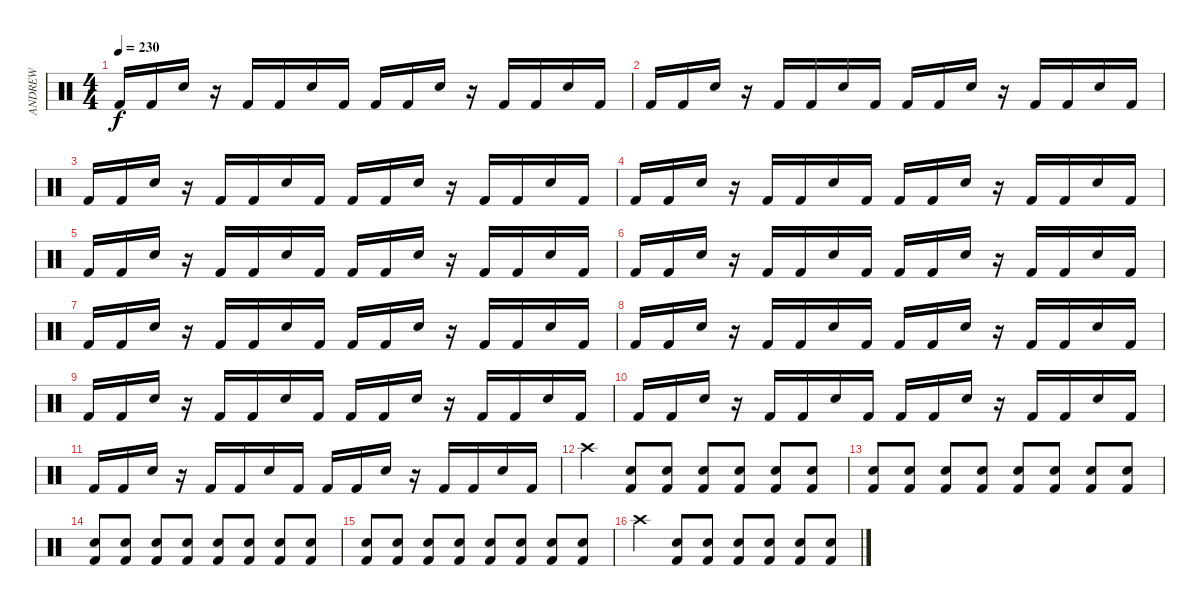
\track ("ANDREW" "ANDREW") {instrument percussion}
\staff {score}
\articulation defaults
\ts (4 4)
\tempo 230
\clef neutral
\ks c "Kick (hit) 2".16{dy f} "Kick (hit) 2".16 "Electric Snare (hit)".16
r.16 "Kick (hit) 2".16 "Kick (hit) 2".16 "Electric Snare (hit)".16 "Kick (hit) 2".16 "Kick (hit) 2".16 "Kick (hit) 2".16 "Electric Snare (hit)".16 r.16 "Kick (hit) 2".16 "Kick (hit) 2".16 "Electric Snare (hit)".16 "Kick (hit) 2".16 |
"Kick (hit) 2".16 "Kick (hit) 2".16 "Electric Snare (hit)".16 r.16 "Kick (hit) 2".16 "Kick (hit) 2".16 "Electric Snare (hit)".16 "Kick (hit) 2".16 "Kick (hit) 2".16 "Kick (hit) 2".16 "Electric Snare (hit)".16 r.16 "Kick (hit) 2".16 "Kick (hit) 2".16 "Electric Snare (hit)".16 "Kick (hit) 2".16 |
"Kick (hit) 2".16 "Kick (hit) 2".16 "Electric Snare (hit)".16 r.16 "Kick (hit) 2".16 "Kick (hit) 2".16 "Electric Snare (hit)".16 "Kick (hit) 2".16 "Kick (hit) 2".16 "Kick (hit) 2".16 "Electric Snare (hit)".16 r.16 "Kick (hit) 2".16 "Kick (hit) 2".16 "Electric Snare (hit)".16 "Kick (hit) 2".16 |
"Kick (hit) 2".16 "Kick (hit) 2".16 "Electric Snare (hit)".16 r.16 "Kick (hit) 2".16 "Kick (hit) 2".16 "Electric Snare (hit)".16 "Kick (hit) 2".16 "Kick (hit) 2".16 "Kick (hit) 2".16 "Electric Snare (hit)".16 r.16 "Kick (hit) 2".16 "Kick (hit) 2".16 "Electric Snare (hit)".16 "Kick (hit) 2".16 |
"Kick (hit) 2".16 "Kick (hit) 2".16 "Electric Snare (hit)".16 r.16 "Kick (hit) 2".16 "Kick (hit) 2".16 "Electric Snare (hit)".16 "Kick (hit) 2".16 "Kick (hit) 2".16 "Kick (hit) 2".16 "Electric Snare (hit)".16 r.16 "Kick (hit) 2".16 "Kick (hit) 2".16 "Electric Snare (hit)".16 "Kick (hit) 2".16 |
"Kick (hit) 2".16 "Kick (hit) 2".16 "Electric Snare (hit)".16 r.16 "Kick (hit) 2".16 "Kick (hit) 2".16 "Electric Snare (hit)".16 "Kick (hit) 2".16 "Kick (hit) 2".16 "Kick (hit) 2".16 "Electric Snare (hit)".16 r.16 "Kick (hit) 2".16 "Kick (hit) 2".16 "Electric Snare (hit)".16 "Kick (hit) 2".16 |
"Kick (hit) 2".16 "Kick (hit) 2".16 "Electric Snare (hit)".16 r.16 "Kick (hit) 2".16 "Kick (hit) 2".16 "Electric Snare (hit)".16 "Kick (hit) 2".16 "Kick (hit) 2".16 "Kick (hit) 2".16 "Electric Snare (hit)".16 r.16 "Kick (hit) 2".16 "Kick (hit) 2".16 "Electric Snare (hit)".16 "Kick (hit) 2".16 |
"Kick (hit) 2".16 "Kick (hit) 2".16 "Electric Snare (hit)".16 r.16 "Kick (hit) 2".16 "Kick (hit) 2".16 "Electric Snare (hit)".16 "Kick (hit) 2".16 "Kick (hit) 2".16 "Kick (hit) 2".16 "Electric Snare (hit)".16 r.16 "Kick (hit) 2".16 "Kick (hit) 2".16 "Electric Snare (hit)".16 "Kick (hit) 2".16 |
"Kick (hit) 2".16 "Kick (hit) 2".16 "Electric Snare (hit)".16 r.16 "Kick (hit) 2".16 "Kick (hit) 2".16 "Electric Snare (hit)".16 "Kick (hit) 2".16 "Kick (hit) 2".16 "Kick (hit) 2".16 "Electric Snare (hit)".16 r.16 "Kick (hit) 2".16 "Kick (hit) 2".16 "Electric Snare (hit)".16 "Kick (hit) 2".16 |
"Kick (hit) 2".16 "Kick (hit) 2".16 "Electric Snare (hit)".16 r.16 "Kick (hit) 2".16 "Kick (hit) 2".16 "Electric Snare (hit)".16 "Kick (hit) 2".16 "Kick (hit) 2".16 "Kick (hit) 2".16 "Electric Snare (hit)".16 r.16 "Kick (hit) 2".16 "Kick (hit) 2".16 "Electric Snare (hit)".16 "Kick (hit) 2".16 |
"Kick (hit) 2".16 "Kick (hit) 2".16 "Electric Snare (hit)".16 r.16 "Kick (hit) 2".16 "Kick (hit) 2".16 "Electric Snare (hit)".16 "Kick (hit) 2".16 "Kick (hit) 2".16 "Kick (hit) 2".16 "Electric Snare (hit)".16 r.16 "Kick (hit) 2".16 "Kick (hit) 2".16 "Electric Snare (hit)".16 "Kick (hit) 2".16 |
"Crash high (hit)".4 ("Electric Snare (hit)" "Kick (hit) 2").8 ("Electric Snare (hit)" "Kick (hit) 2").8 ("Electric Snare (hit)" "Kick (hit) 2").8 ("Electric Snare (hit)" "Kick (hit) 2").8 ("Electric Snare (hit)" "Kick (hit) 2").8 ("Electric Snare (hit)" "Kick (hit) 2").8 |
("Electric Snare (hit)" "Kick (hit) 2").8 ("Electric Snare (hit)" "Kick (hit) 2").8 ("Electric Snare (hit)" "Kick (hit) 2").8 ("Electric Snare (hit)" "Kick (hit) 2").8 ("Electric Snare (hit)" "Kick (hit) 2").8 ("Electric Snare (hit)" "Kick (hit) 2").8 ("Electric Snare (hit)" "Kick (hit) 2").8 ("Electric Snare (hit)" "Kick (hit) 2").8 |
("Electric Snare (hit)" "Kick (hit) 2").8 ("Electric Snare (hit)" "Kick (hit) 2").8 ("Electric Snare (hit)" "Kick (hit) 2").8 ("Electric Snare (hit)" "Kick (hit) 2").8 ("Electric Snare (hit)" "Kick (hit) 2").8 ("Electric Snare (hit)" "Kick (hit) 2").8 ("Electric Snare (hit)" "Kick (hit) 2").8 ("Electric Snare (hit)" "Kick (hit) 2").8 |
("Electric Snare (hit)" "Kick (hit) 2").8 ("Electric Snare (hit)" "Kick (hit) 2").8 ("Electric Snare (hit)" "Kick (hit) 2").8 ("Electric Snare (hit)" "Kick (hit) 2").8 ("Electric Snare (hit)" "Kick (hit) 2").8 ("Electric Snare (hit)" "Kick (hit) 2").8 ("Electric Snare (hit)" "Kick (hit) 2").8 ("Electric Snare (hit)" "Kick (hit) 2").8 |
"Crash high (hit)".4 ("Electric Snare (hit)" "Kick (hit) 2").8 ("Electric Snare (hit)" "Kick (hit) 2").8 ("Electric Snare (hit)" "Kick (hit) 2").8 ("Electric Snare (hit)" "Kick (hit) 2").8 ("Electric Snare (hit)" "Kick (hit) 2").8 ("Electric Snare (hit)" "Kick (hit) 2").8
